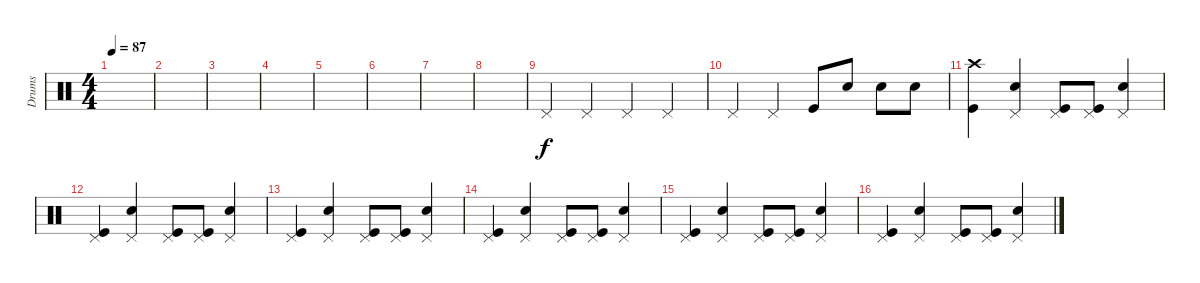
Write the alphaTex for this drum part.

\track ("Drums" "Drums") {instrument percussion}
\staff {score}
\articulation defaults
\ts (4 4)
\tempo 87
\clef neutral
\ks c
|
|
|
|
|
|
|
|
"Pedal Hi-Hat (hit)".4 "Pedal Hi-Hat (hit)".4 "Pedal Hi-Hat (hit)".4 "Pedal Hi-Hat (hit)".4 |
"Pedal Hi-Hat (hit)".4 "Pedal Hi-Hat (hit)".4 "Kick (hit)".8 "Snare (hit) 2".8 "Snare (hit) 2".8 "Snare (hit) 2".8 |
("Crash high (hit)" "Kick (hit)").4 ("Pedal Hi-Hat (hit)" "Electric Snare (hit)").4 ("Pedal Hi-Hat (hit)" "Kick (hit)").8 ("Pedal Hi-Hat (hit)" "Kick (hit)").8 ("Pedal Hi-Hat (hit)" "Snare (hit) 2").4 |
("Pedal Hi-Hat (hit)" "Kick (hit)").4 ("Pedal Hi-Hat (hit)" "Electric Snare (hit)").4 ("Pedal Hi-Hat (hit)" "Kick (hit)").8 ("Pedal Hi-Hat (hit)" "Kick (hit)").8 ("Pedal Hi-Hat (hit)" "Snare (hit) 2").4 |
("Pedal Hi-Hat (hit)" "Kick (hit)").4 ("Pedal Hi-Hat (hit)" "Electric Snare (hit)").4 ("Pedal Hi-Hat (hit)" "Kick (hit)").8 ("Pedal Hi-Hat (hit)" "Kick (hit)").8 ("Pedal Hi-Hat (hit)" "Snare (hit) 2").4 |
("Pedal Hi-Hat (hit)" "Kick (hit)").4 ("Pedal Hi-Hat (hit)" "Electric Snare (hit)").4 ("Pedal Hi-Hat (hit)" "Kick (hit)").8 ("Pedal Hi-Hat (hit)" "Kick (hit)").8 ("Pedal Hi-Hat (hit)" "Snare (hit) 2").4 |
("Pedal Hi-Hat (hit)" "Kick (hit)").4 ("Pedal Hi-Hat (hit)" "Electric Snare (hit)").4 ("Pedal Hi-Hat (hit)" "Kick (hit)").8 ("Pedal Hi-Hat (hit)" "Kick (hit)").8 ("Pedal Hi-Hat (hit)" "Snare (hit) 2").4 |
("Pedal Hi-Hat (hit)" "Kick (hit)").4 ("Pedal Hi-Hat (hit)" "Electric Snare (hit)").4 ("Pedal Hi-Hat (hit)" "Kick (hit)").8 ("Pedal Hi-Hat (hit)" "Kick (hit)").8 ("Pedal Hi-Hat (hit)" "Snare (hit) 2").4
